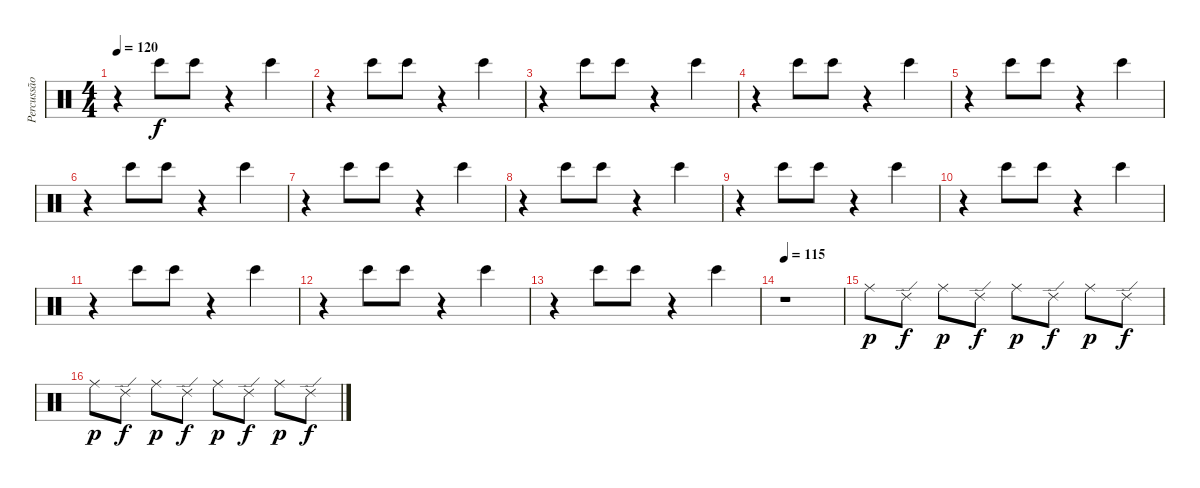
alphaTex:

\track ("Percussão" "Percussão") {instrument percussion}
\staff {score}
\articulation defaults
\ts (4 4)
\tempo 120
\clef neutral
\ks c
r.4{dy f} "Bongo High (hit)".8 "Bongo High (hit)".8 r.4 "Bongo High (hit)".4 |
r.4 "Bongo High (hit)".8 "Bongo High (hit)".8 r.4 "Bongo High (hit)".4 |
r.4 "Bongo High (hit)".8 "Bongo High (hit)".8 r.4 "Bongo High (hit)".4 |
r.4 "Bongo High (hit)".8 "Bongo High (hit)".8 r.4 "Bongo High (hit)".4 |
r.4 "Bongo High (hit)".8 "Bongo High (hit)".8 r.4 "Bongo High (hit)".4 |
r.4 "Bongo High (hit)".8 "Bongo High (hit)".8 r.4 "Bongo High (hit)".4 |
r.4 "Bongo High (hit)".8 "Bongo High (hit)".8 r.4 "Bongo High (hit)".4 |
r.4 "Bongo High (hit)".8 "Bongo High (hit)".8 r.4 "Bongo High (hit)".4 |
r.4 "Bongo High (hit)".8 "Bongo High (hit)".8 r.4 "Bongo High (hit)".4 |
r.4 "Bongo High (hit)".8 "Bongo High (hit)".8 r.4 "Bongo High (hit)".4 |
r.4 "Bongo High (hit)".8 "Bongo High (hit)".8 r.4 "Bongo High (hit)".4 |
r.4 "Bongo High (hit)".8 "Bongo High (hit)".8 r.4 "Bongo High (hit)".4 |
r.4 "Bongo High (hit)".8 "Bongo High (hit)".8 r.4 "Bongo High (hit)".4 |
\tempo 115
r.1 |
"Ride (middle)".8{dy p} "Ride (edge) 2".8{dy f} "Ride (middle)".8{dy p} "Ride (edge) 2".8{dy f} "Ride (middle)".8{dy p} "Ride (edge) 2".8{dy f} "Ride (middle)".8{dy p} "Ride (edge) 2".8{dy f} |
"Ride (middle)".8{dy p} "Ride (edge) 2".8{dy f} "Ride (middle)".8{dy p} "Ride (edge) 2".8{dy f} "Ride (middle)".8{dy p} "Ride (edge) 2".8{dy f} "Ride (middle)".8{dy p} "Ride (edge) 2".8{dy f}
